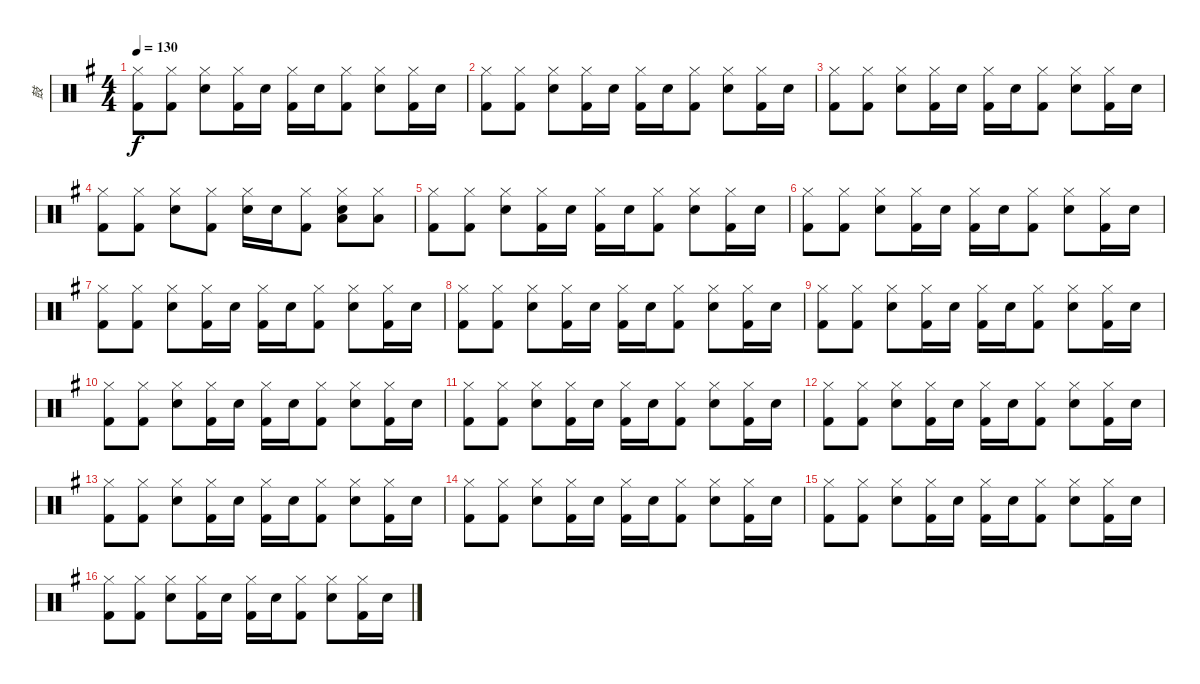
\track ("鼓" "鼓") {instrument percussion}
\staff {score}
\articulation defaults
\ts (4 4)
\tempo 130
\clef neutral
\ks g
("Hi-Hat (closed)" "Kick (hit) 2").8{dy f} ("Hi-Hat (closed)" "Kick (hit) 2").8 ("Hi-Hat (closed)" "Snare (hit) 2").8 ("Hi-Hat (closed)" "Kick (hit) 2").16 "Snare (hit) 2".16 ("Hi-Hat (closed)" "Kick (hit) 2").16 "Snare (hit) 2".16 ("Hi-Hat (closed)" "Kick (hit) 2").8 ("Hi-Hat (closed)" "Snare (hit) 2").8 ("Hi-Hat (closed)" "Kick (hit) 2").16 "Snare (hit) 2".16 |
("Hi-Hat (closed)" "Kick (hit) 2").8 ("Hi-Hat (closed)" "Kick (hit) 2").8 ("Hi-Hat (closed)" "Snare (hit) 2").8 ("Hi-Hat (closed)" "Kick (hit) 2").16 "Snare (hit) 2".16 ("Hi-Hat (closed)" "Kick (hit) 2").16 "Snare (hit) 2".16 ("Hi-Hat (closed)" "Kick (hit) 2").8 ("Hi-Hat (closed)" "Snare (hit) 2").8 ("Hi-Hat (closed)" "Kick (hit) 2").16 "Snare (hit) 2".16 |
("Hi-Hat (closed)" "Kick (hit) 2").8 ("Hi-Hat (closed)" "Kick (hit) 2").8 ("Hi-Hat (closed)" "Snare (hit) 2").8 ("Hi-Hat (closed)" "Kick (hit) 2").16 "Snare (hit) 2".16 ("Hi-Hat (closed)" "Kick (hit) 2").16 "Snare (hit) 2".16 ("Hi-Hat (closed)" "Kick (hit) 2").8 ("Hi-Hat (closed)" "Snare (hit) 2").8 ("Hi-Hat (closed)" "Kick (hit) 2").16 "Snare (hit) 2".16 |
("Hi-Hat (closed)" "Kick (hit) 2").8 ("Hi-Hat (closed)" "Kick (hit) 2").8 ("Hi-Hat (closed)" "Snare (hit) 2").8 ("Hi-Hat (closed)" "Kick (hit) 2").8 ("Hi-Hat (closed)" "Snare (hit) 2").16 "Snare (hit) 2".16 ("Hi-Hat (closed)" "Kick (hit) 2").8 ("Hi-Hat (closed)" "Low Tom (hit)" "Snare (hit) 2").8 ("Hi-Hat (closed)" "Low Floor Tom (hit)").8 |
("Hi-Hat (closed)" "Kick (hit) 2").8 ("Hi-Hat (closed)" "Kick (hit) 2").8 ("Hi-Hat (closed)" "Snare (hit) 2").8 ("Hi-Hat (closed)" "Kick (hit) 2").16 "Snare (hit) 2".16 ("Hi-Hat (closed)" "Kick (hit) 2").16 "Snare (hit) 2".16 ("Hi-Hat (closed)" "Kick (hit) 2").8 ("Hi-Hat (closed)" "Snare (hit) 2").8 ("Hi-Hat (closed)" "Kick (hit) 2").16 "Snare (hit) 2".16 |
("Hi-Hat (closed)" "Kick (hit) 2").8 ("Hi-Hat (closed)" "Kick (hit) 2").8 ("Hi-Hat (closed)" "Snare (hit) 2").8 ("Hi-Hat (closed)" "Kick (hit) 2").16 "Snare (hit) 2".16 ("Hi-Hat (closed)" "Kick (hit) 2").16 "Snare (hit) 2".16 ("Hi-Hat (closed)" "Kick (hit) 2").8 ("Hi-Hat (closed)" "Snare (hit) 2").8 ("Hi-Hat (closed)" "Kick (hit) 2").16 "Snare (hit) 2".16 |
("Hi-Hat (closed)" "Kick (hit) 2").8 ("Hi-Hat (closed)" "Kick (hit) 2").8 ("Hi-Hat (closed)" "Snare (hit) 2").8 ("Hi-Hat (closed)" "Kick (hit) 2").16 "Snare (hit) 2".16 ("Hi-Hat (closed)" "Kick (hit) 2").16 "Snare (hit) 2".16 ("Hi-Hat (closed)" "Kick (hit) 2").8 ("Hi-Hat (closed)" "Snare (hit) 2").8 ("Hi-Hat (closed)" "Kick (hit) 2").16 "Snare (hit) 2".16 |
("Hi-Hat (closed)" "Kick (hit) 2").8 ("Hi-Hat (closed)" "Kick (hit) 2").8 ("Hi-Hat (closed)" "Snare (hit) 2").8 ("Hi-Hat (closed)" "Kick (hit) 2").16 "Snare (hit) 2".16 ("Hi-Hat (closed)" "Kick (hit) 2").16 "Snare (hit) 2".16 ("Hi-Hat (closed)" "Kick (hit) 2").8 ("Hi-Hat (closed)" "Snare (hit) 2").8 ("Hi-Hat (closed)" "Kick (hit) 2").16 "Snare (hit) 2".16 |
("Hi-Hat (closed)" "Kick (hit) 2").8 ("Hi-Hat (closed)" "Kick (hit) 2").8 ("Hi-Hat (closed)" "Snare (hit) 2").8 ("Hi-Hat (closed)" "Kick (hit) 2").16 "Snare (hit) 2".16 ("Hi-Hat (closed)" "Kick (hit) 2").16 "Snare (hit) 2".16 ("Hi-Hat (closed)" "Kick (hit) 2").8 ("Hi-Hat (closed)" "Snare (hit) 2").8 ("Hi-Hat (closed)" "Kick (hit) 2").16 "Snare (hit) 2".16 |
("Hi-Hat (closed)" "Kick (hit) 2").8 ("Hi-Hat (closed)" "Kick (hit) 2").8 ("Hi-Hat (closed)" "Snare (hit) 2").8 ("Hi-Hat (closed)" "Kick (hit) 2").16 "Snare (hit) 2".16 ("Hi-Hat (closed)" "Kick (hit) 2").16 "Snare (hit) 2".16 ("Hi-Hat (closed)" "Kick (hit) 2").8 ("Hi-Hat (closed)" "Snare (hit) 2").8 ("Hi-Hat (closed)" "Kick (hit) 2").16 "Snare (hit) 2".16 |
("Hi-Hat (closed)" "Kick (hit) 2").8 ("Hi-Hat (closed)" "Kick (hit) 2").8 ("Hi-Hat (closed)" "Snare (hit) 2").8 ("Hi-Hat (closed)" "Kick (hit) 2").16 "Snare (hit) 2".16 ("Hi-Hat (closed)" "Kick (hit) 2").16 "Snare (hit) 2".16 ("Hi-Hat (closed)" "Kick (hit) 2").8 ("Hi-Hat (closed)" "Snare (hit) 2").8 ("Hi-Hat (closed)" "Kick (hit) 2").16 "Snare (hit) 2".16 |
("Hi-Hat (closed)" "Kick (hit) 2").8 ("Hi-Hat (closed)" "Kick (hit) 2").8 ("Hi-Hat (closed)" "Snare (hit) 2").8 ("Hi-Hat (closed)" "Kick (hit) 2").16 "Snare (hit) 2".16 ("Hi-Hat (closed)" "Kick (hit) 2").16 "Snare (hit) 2".16 ("Hi-Hat (closed)" "Kick (hit) 2").8 ("Hi-Hat (closed)" "Snare (hit) 2").8 ("Hi-Hat (closed)" "Kick (hit) 2").16 "Snare (hit) 2".16 |
("Hi-Hat (closed)" "Kick (hit) 2").8 ("Hi-Hat (closed)" "Kick (hit) 2").8 ("Hi-Hat (closed)" "Snare (hit) 2").8 ("Hi-Hat (closed)" "Kick (hit) 2").16 "Snare (hit) 2".16 ("Hi-Hat (closed)" "Kick (hit) 2").16 "Snare (hit) 2".16 ("Hi-Hat (closed)" "Kick (hit) 2").8 ("Hi-Hat (closed)" "Snare (hit) 2").8 ("Hi-Hat (closed)" "Kick (hit) 2").16 "Snare (hit) 2".16 |
("Hi-Hat (closed)" "Kick (hit) 2").8 ("Hi-Hat (closed)" "Kick (hit) 2").8 ("Hi-Hat (closed)" "Snare (hit) 2").8 ("Hi-Hat (closed)" "Kick (hit) 2").16 "Snare (hit) 2".16 ("Hi-Hat (closed)" "Kick (hit) 2").16 "Snare (hit) 2".16 ("Hi-Hat (closed)" "Kick (hit) 2").8 ("Hi-Hat (closed)" "Snare (hit) 2").8 ("Hi-Hat (closed)" "Kick (hit) 2").16 "Snare (hit) 2".16 |
("Hi-Hat (closed)" "Kick (hit) 2").8 ("Hi-Hat (closed)" "Kick (hit) 2").8 ("Hi-Hat (closed)" "Snare (hit) 2").8 ("Hi-Hat (closed)" "Kick (hit) 2").16 "Snare (hit) 2".16 ("Hi-Hat (closed)" "Kick (hit) 2").16 "Snare (hit) 2".16 ("Hi-Hat (closed)" "Kick (hit) 2").8 ("Hi-Hat (closed)" "Snare (hit) 2").8 ("Hi-Hat (closed)" "Kick (hit) 2").16 "Snare (hit) 2".16 |
("Hi-Hat (closed)" "Kick (hit) 2").8 ("Hi-Hat (closed)" "Kick (hit) 2").8 ("Hi-Hat (closed)" "Snare (hit) 2").8 ("Hi-Hat (closed)" "Kick (hit) 2").16 "Snare (hit) 2".16 ("Hi-Hat (closed)" "Kick (hit) 2").16 "Snare (hit) 2".16 ("Hi-Hat (closed)" "Kick (hit) 2").8 ("Hi-Hat (closed)" "Snare (hit) 2").8 ("Hi-Hat (closed)" "Kick (hit) 2").16 "Snare (hit) 2".16
